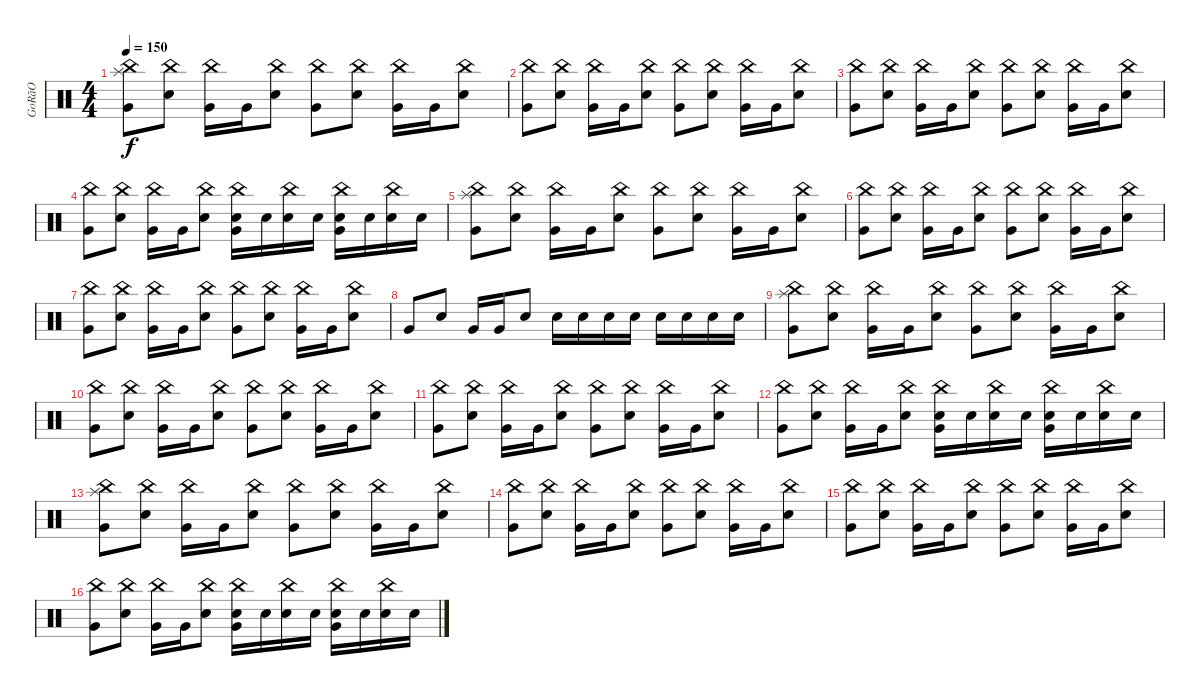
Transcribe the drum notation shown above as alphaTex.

\track ("GoRãO" "GoRãO") {instrument percussion}
\staff {score}
\articulation defaults
\ts (4 4)
\tempo 150
\clef neutral
\ks c
("Very Low Tom (hit)" "Splash (hit)" "China (hit)").8{dy f} ("Electric Snare (hit)" "China (hit)").8 ("Very Low Tom (hit)" "China (hit)").16 "Very Low Tom (hit)".16 ("Electric Snare (hit)" "China (hit)").8 ("Very Low Tom (hit)" "China (hit)").8 ("Electric Snare (hit)" "China (hit)").8 ("Very Low Tom (hit)" "China (hit)").16 "Very Low Tom (hit)".16 ("Electric Snare (hit)" "China (hit)").8 |
("Very Low Tom (hit)" "China (hit)").8 ("Electric Snare (hit)" "China (hit)").8 ("Very Low Tom (hit)" "China (hit)").16 "Very Low Tom (hit)".16 ("Electric Snare (hit)" "China (hit)").8 ("Very Low Tom (hit)" "China (hit)").8 ("Electric Snare (hit)" "China (hit)").8 ("Very Low Tom (hit)" "China (hit)").16 "Very Low Tom (hit)".16 ("Electric Snare (hit)" "China (hit)").8 |
("Very Low Tom (hit)" "China (hit)").8 ("Electric Snare (hit)" "China (hit)").8 ("Very Low Tom (hit)" "China (hit)").16 "Very Low Tom (hit)".16 ("Electric Snare (hit)" "China (hit)").8 ("Very Low Tom (hit)" "China (hit)").8 ("Electric Snare (hit)" "China (hit)").8 ("Very Low Tom (hit)" "China (hit)").16 "Very Low Tom (hit)".16 ("Electric Snare (hit)" "China (hit)").8 |
("Very Low Tom (hit)" "China (hit)").8 ("Electric Snare (hit)" "China (hit)").8 ("Very Low Tom (hit)" "China (hit)").16 "Very Low Tom (hit)".16 ("Electric Snare (hit)" "China (hit)").8 ("Snare (hit) 2" "Very Low Tom (hit)" "China (hit)").16 "Snare (hit) 2".16 ("Snare (hit) 2" "China (hit)").16 "Snare (hit) 2".16 ("Snare (hit) 2" "Very Low Tom (hit)" "China (hit)").16 "Snare (hit) 2".16 ("Snare (hit) 2" "China (hit)").16 "Snare (hit) 2".16 |
("Very Low Tom (hit)" "Splash (hit)" "China (hit)").8 ("Electric Snare (hit)" "China (hit)").8 ("Very Low Tom (hit)" "China (hit)").16 "Very Low Tom (hit)".16 ("Electric Snare (hit)" "China (hit)").8 ("Very Low Tom (hit)" "China (hit)").8 ("Electric Snare (hit)" "China (hit)").8 ("Very Low Tom (hit)" "China (hit)").16 "Very Low Tom (hit)".16 ("Electric Snare (hit)" "China (hit)").8 |
("Very Low Tom (hit)" "China (hit)").8 ("Electric Snare (hit)" "China (hit)").8 ("Very Low Tom (hit)" "China (hit)").16 "Very Low Tom (hit)".16 ("Electric Snare (hit)" "China (hit)").8 ("Very Low Tom (hit)" "China (hit)").8 ("Electric Snare (hit)" "China (hit)").8 ("Very Low Tom (hit)" "China (hit)").16 "Very Low Tom (hit)".16 ("Electric Snare (hit)" "China (hit)").8 |
("Very Low Tom (hit)" "China (hit)").8 ("Electric Snare (hit)" "China (hit)").8 ("Very Low Tom (hit)" "China (hit)").16 "Very Low Tom (hit)".16 ("Electric Snare (hit)" "China (hit)").8 ("Very Low Tom (hit)" "China (hit)").8 ("Electric Snare (hit)" "China (hit)").8 ("Very Low Tom (hit)" "China (hit)").16 "Very Low Tom (hit)".16 ("Electric Snare (hit)" "China (hit)").8 |
"Very Low Tom (hit)".8 "Electric Snare (hit)".8 "Very Low Tom (hit)".16 "Very Low Tom (hit)".16 "Electric Snare (hit)".8 "Snare (hit) 2".16 "Snare (hit) 2".16 "Snare (hit) 2".16 "Snare (hit) 2".16 "Snare (hit) 2".16 "Snare (hit) 2".16 "Snare (hit) 2".16 "Snare (hit) 2".16 |
("Very Low Tom (hit)" "Splash (hit)" "China (hit)").8 ("Electric Snare (hit)" "China (hit)").8 ("Very Low Tom (hit)" "China (hit)").16 "Very Low Tom (hit)".16 ("Electric Snare (hit)" "China (hit)").8 ("Very Low Tom (hit)" "China (hit)").8 ("Electric Snare (hit)" "China (hit)").8 ("Very Low Tom (hit)" "China (hit)").16 "Very Low Tom (hit)".16 ("Electric Snare (hit)" "China (hit)").8 |
("Very Low Tom (hit)" "China (hit)").8 ("Electric Snare (hit)" "China (hit)").8 ("Very Low Tom (hit)" "China (hit)").16 "Very Low Tom (hit)".16 ("Electric Snare (hit)" "China (hit)").8 ("Very Low Tom (hit)" "China (hit)").8 ("Electric Snare (hit)" "China (hit)").8 ("Very Low Tom (hit)" "China (hit)").16 "Very Low Tom (hit)".16 ("Electric Snare (hit)" "China (hit)").8 |
("Very Low Tom (hit)" "China (hit)").8 ("Electric Snare (hit)" "China (hit)").8 ("Very Low Tom (hit)" "China (hit)").16 "Very Low Tom (hit)".16 ("Electric Snare (hit)" "China (hit)").8 ("Very Low Tom (hit)" "China (hit)").8 ("Electric Snare (hit)" "China (hit)").8 ("Very Low Tom (hit)" "China (hit)").16 "Very Low Tom (hit)".16 ("Electric Snare (hit)" "China (hit)").8 |
("Very Low Tom (hit)" "China (hit)").8 ("Electric Snare (hit)" "China (hit)").8 ("Very Low Tom (hit)" "China (hit)").16 "Very Low Tom (hit)".16 ("Electric Snare (hit)" "China (hit)").8 ("Snare (hit) 2" "Very Low Tom (hit)" "China (hit)").16 "Snare (hit) 2".16 ("Snare (hit) 2" "China (hit)").16 "Snare (hit) 2".16 ("Snare (hit) 2" "Very Low Tom (hit)" "China (hit)").16 "Snare (hit) 2".16 ("Snare (hit) 2" "China (hit)").16 "Snare (hit) 2".16 |
("Very Low Tom (hit)" "Splash (hit)" "China (hit)").8 ("Electric Snare (hit)" "China (hit)").8 ("Very Low Tom (hit)" "China (hit)").16 "Very Low Tom (hit)".16 ("Electric Snare (hit)" "China (hit)").8 ("Very Low Tom (hit)" "China (hit)").8 ("Electric Snare (hit)" "China (hit)").8 ("Very Low Tom (hit)" "China (hit)").16 "Very Low Tom (hit)".16 ("Electric Snare (hit)" "China (hit)").8 |
("Very Low Tom (hit)" "China (hit)").8 ("Electric Snare (hit)" "China (hit)").8 ("Very Low Tom (hit)" "China (hit)").16 "Very Low Tom (hit)".16 ("Electric Snare (hit)" "China (hit)").8 ("Very Low Tom (hit)" "China (hit)").8 ("Electric Snare (hit)" "China (hit)").8 ("Very Low Tom (hit)" "China (hit)").16 "Very Low Tom (hit)".16 ("Electric Snare (hit)" "China (hit)").8 |
("Very Low Tom (hit)" "China (hit)").8 ("Electric Snare (hit)" "China (hit)").8 ("Very Low Tom (hit)" "China (hit)").16 "Very Low Tom (hit)".16 ("Electric Snare (hit)" "China (hit)").8 ("Very Low Tom (hit)" "China (hit)").8 ("Electric Snare (hit)" "China (hit)").8 ("Very Low Tom (hit)" "China (hit)").16 "Very Low Tom (hit)".16 ("Electric Snare (hit)" "China (hit)").8 |
("Very Low Tom (hit)" "China (hit)").8 ("Electric Snare (hit)" "China (hit)").8 ("Very Low Tom (hit)" "China (hit)").16 "Very Low Tom (hit)".16 ("Electric Snare (hit)" "China (hit)").8 ("Snare (hit) 2" "Very Low Tom (hit)" "China (hit)").16 "Snare (hit) 2".16 ("Snare (hit) 2" "China (hit)").16 "Snare (hit) 2".16 ("Snare (hit) 2" "Very Low Tom (hit)" "China (hit)").16 "Snare (hit) 2".16 ("Snare (hit) 2" "China (hit)").16 "Snare (hit) 2".16
